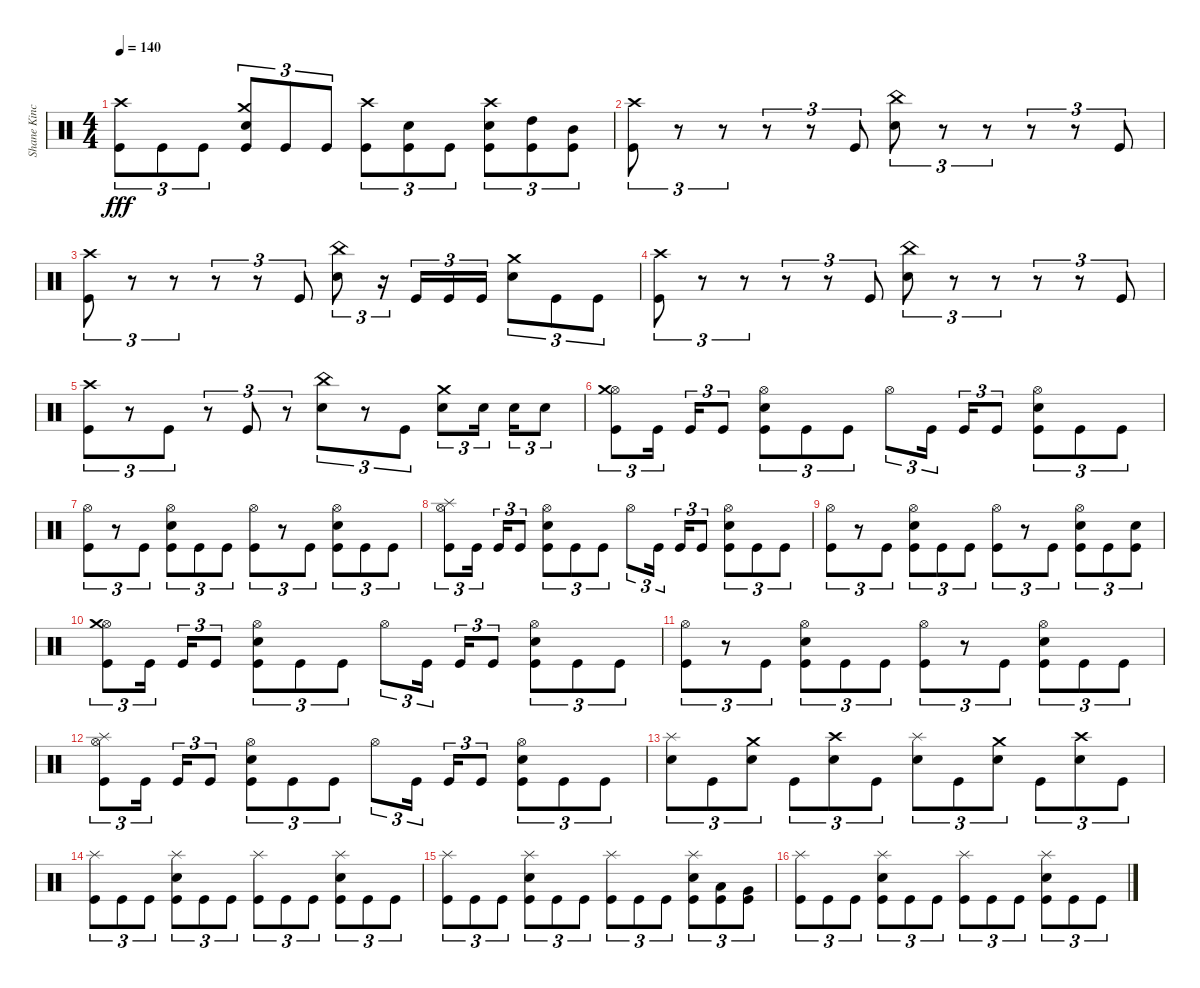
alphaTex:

\track ("Shane Kincaid" "Shane Kinc") {instrument percussion}
\staff {score}
\articulation defaults
\ts (4 4)
\tempo 140
\clef neutral
\ks c
("Crash high (hit)" "Kick (hit)").8{tu (3 2) dy fff} "Kick (hit)".8{tu (3 2)} "Kick (hit)".8{tu (3 2)} ("Crash medium (hit)" "Kick (hit)" "Electric Snare (hit)").8{tu (3 2)} "Kick (hit)".8{tu (3 2)} "Kick (hit)".8{tu (3 2)} ("Crash high (hit)" "Kick (hit)").8{tu (3 2)} ("Kick (hit)" "Electric Snare (hit)").8{tu (3 2)} "Kick (hit)".8{tu (3 2)} ("Crash high (hit)" "Kick (hit)" "Electric Snare (hit)").8{tu (3 2)} ("High Tom (hit)" "Kick (hit)").8{tu (3 2)} ("Mid Tom (hit)" "Kick (hit)").8{tu (3 2)} |
("Crash high (hit)" "Kick (hit)").8{tu (3 2)} r.8{tu (3 2)} r.8{tu (3 2)} r.8{tu (3 2)} r.8{tu (3 2)} "Kick (hit)".8{tu (3 2)} ("China (hit)" "Electric Snare (hit)").8{tu (3 2)} r.8{tu (3 2)} r.8{tu (3 2)} r.8{tu (3 2)} r.8{tu (3 2)} "Kick (hit)".8{tu (3 2)} |
("Crash high (hit)" "Kick (hit)").8{tu (3 2)} r.8{tu (3 2)} r.8{tu (3 2)} r.8{tu (3 2)} r.8{tu (3 2)} "Kick (hit)".8{tu (3 2)} ("China (hit)" "Electric Snare (hit)").8{tu (3 2)} r.16{tu (3 2)} "Kick (hit)".16{tu (3 2)} "Kick (hit)".16{tu (3 2)} "Kick (hit)".16{tu (3 2)} ("Crash medium (hit)" "Electric Snare (hit)").8{tu (3 2)} "Kick (hit)".8{tu (3 2)} "Kick (hit)".8{tu (3 2)} |
("Crash high (hit)" "Kick (hit)").8{tu (3 2)} r.8{tu (3 2)} r.8{tu (3 2)} r.8{tu (3 2)} r.8{tu (3 2)} "Kick (hit)".8{tu (3 2)} ("China (hit)" "Electric Snare (hit)").8{tu (3 2)} r.8{tu (3 2)} r.8{tu (3 2)} r.8{tu (3 2)} r.8{tu (3 2)} "Kick (hit)".8{tu (3 2)} |
("Crash high (hit)" "Kick (hit)").8{tu (3 2)} r.8{tu (3 2)} "Kick (hit)".8{tu (3 2)} r.8{tu (3 2)} "Kick (hit)".8{tu (3 2)} r.8{tu (3 2)} ("China (hit)" "Electric Snare (hit)").8{tu (3 2)} r.8{tu (3 2)} "Kick (hit)".8{tu (3 2)} ("Crash medium (hit)" "Electric Snare (hit)").8{tu (3 2)} "Electric Snare (hit)".16{tu (3 2) beam splitsecondary} "Electric Snare (hit)".16{tu (3 2)} "Electric Snare (hit)".8{tu (3 2)} |
("Hi-Hat (open)" "Crash medium (hit)" "Kick (hit)").8{tu (3 2)} "Kick (hit)".16{tu (3 2) beam splitsecondary} "Kick (hit)".16{tu (3 2)} "Kick (hit)".8{tu (3 2)} ("Hi-Hat (open)" "Electric Snare (hit)" "Kick (hit)").8{tu (3 2)} "Kick (hit)".8{tu (3 2)} "Kick (hit)".8{tu (3 2)} "Hi-Hat (open)".8{tu (3 2)} "Kick (hit)".16{tu (3 2) beam splitsecondary} "Kick (hit)".16{tu (3 2)} "Kick (hit)".8{tu (3 2)} ("Hi-Hat (open)" "Electric Snare (hit)" "Kick (hit)").8{tu (3 2)} "Kick (hit)".8{tu (3 2)} "Kick (hit)".8{tu (3 2)} |
("Hi-Hat (open)" "Kick (hit)").8{tu (3 2)} r.8{tu (3 2)} "Kick (hit)".8{tu (3 2)} ("Hi-Hat (open)" "Kick (hit)" "Electric Snare (hit)").8{tu (3 2)} "Kick (hit)".8{tu (3 2)} "Kick (hit)".8{tu (3 2)} ("Hi-Hat (open)" "Kick (hit)").8{tu (3 2)} r.8{tu (3 2)} "Kick (hit)".8{tu (3 2)} ("Hi-Hat (open)" "Kick (hit)" "Electric Snare (hit)").8{tu (3 2)} "Kick (hit)".8{tu (3 2)} "Kick (hit)".8{tu (3 2)} |
("Hi-Hat (open)" "Splash (hit)" "Kick (hit)").8{tu (3 2)} "Kick (hit)".16{tu (3 2) beam splitsecondary} "Kick (hit)".16{tu (3 2)} "Kick (hit)".8{tu (3 2)} ("Hi-Hat (open)" "Electric Snare (hit)" "Kick (hit)").8{tu (3 2)} "Kick (hit)".8{tu (3 2)} "Kick (hit)".8{tu (3 2)} "Hi-Hat (open)".8{tu (3 2)} "Kick (hit)".16{tu (3 2) beam splitsecondary} "Kick (hit)".16{tu (3 2)} "Kick (hit)".8{tu (3 2)} ("Hi-Hat (open)" "Electric Snare (hit)" "Kick (hit)").8{tu (3 2)} "Kick (hit)".8{tu (3 2)} "Kick (hit)".8{tu (3 2)} |
("Hi-Hat (open)" "Kick (hit)").8{tu (3 2)} r.8{tu (3 2)} "Kick (hit)".8{tu (3 2)} ("Hi-Hat (open)" "Kick (hit)" "Electric Snare (hit)").8{tu (3 2)} "Kick (hit)".8{tu (3 2)} "Kick (hit)".8{tu (3 2)} ("Hi-Hat (open)" "Kick (hit)").8{tu (3 2)} r.8{tu (3 2)} "Kick (hit)".8{tu (3 2)} ("Hi-Hat (open)" "Kick (hit)" "Electric Snare (hit)").8{tu (3 2)} "Kick (hit)".8{tu (3 2)} ("Electric Snare (hit)" "Kick (hit)").8{tu (3 2)} |
("Hi-Hat (open)" "Crash medium (hit)" "Kick (hit)").8{tu (3 2)} "Kick (hit)".16{tu (3 2) beam splitsecondary} "Kick (hit)".16{tu (3 2)} "Kick (hit)".8{tu (3 2)} ("Hi-Hat (open)" "Electric Snare (hit)" "Kick (hit)").8{tu (3 2)} "Kick (hit)".8{tu (3 2)} "Kick (hit)".8{tu (3 2)} "Hi-Hat (open)".8{tu (3 2)} "Kick (hit)".16{tu (3 2) beam splitsecondary} "Kick (hit)".16{tu (3 2)} "Kick (hit)".8{tu (3 2)} ("Hi-Hat (open)" "Electric Snare (hit)" "Kick (hit)").8{tu (3 2)} "Kick (hit)".8{tu (3 2)} "Kick (hit)".8{tu (3 2)} |
("Hi-Hat (open)" "Kick (hit)").8{tu (3 2)} r.8{tu (3 2)} "Kick (hit)".8{tu (3 2)} ("Hi-Hat (open)" "Kick (hit)" "Electric Snare (hit)").8{tu (3 2)} "Kick (hit)".8{tu (3 2)} "Kick (hit)".8{tu (3 2)} ("Hi-Hat (open)" "Kick (hit)").8{tu (3 2)} r.8{tu (3 2)} "Kick (hit)".8{tu (3 2)} ("Hi-Hat (open)" "Kick (hit)" "Electric Snare (hit)").8{tu (3 2)} "Kick (hit)".8{tu (3 2)} "Kick (hit)".8{tu (3 2)} |
("Hi-Hat (open)" "Splash (hit)" "Kick (hit)").8{tu (3 2)} "Kick (hit)".16{tu (3 2) beam splitsecondary} "Kick (hit)".16{tu (3 2)} "Kick (hit)".8{tu (3 2)} ("Hi-Hat (open)" "Electric Snare (hit)" "Kick (hit)").8{tu (3 2)} "Kick (hit)".8{tu (3 2)} "Kick (hit)".8{tu (3 2)} "Hi-Hat (open)".8{tu (3 2)} "Kick (hit)".16{tu (3 2) beam splitsecondary} "Kick (hit)".16{tu (3 2)} "Kick (hit)".8{tu (3 2)} ("Hi-Hat (open)" "Electric Snare (hit)" "Kick (hit)").8{tu (3 2)} "Kick (hit)".8{tu (3 2)} "Kick (hit)".8{tu (3 2)} |
("Splash (hit)" "Electric Snare (hit)").8{tu (3 2)} "Kick (hit)".8{tu (3 2)} ("Crash medium (hit)" "Electric Snare (hit)").8{tu (3 2)} "Kick (hit)".8{tu (3 2)} ("Crash high (hit)" "Electric Snare (hit)").8{tu (3 2)} "Kick (hit)".8{tu (3 2)} ("Splash (hit)" "Electric Snare (hit)").8{tu (3 2)} "Kick (hit)".8{tu (3 2)} ("Crash medium (hit)" "Electric Snare (hit)").8{tu (3 2)} "Kick (hit)".8{tu (3 2)} ("Crash high (hit)" "Electric Snare (hit)").8{tu (3 2)} "Kick (hit)".8{tu (3 2)} |
("Splash (hit)" "Kick (hit)").8{tu (3 2)} "Kick (hit)".8{tu (3 2)} "Kick (hit)".8{tu (3 2)} ("Splash (hit)" "Electric Snare (hit)" "Kick (hit)").8{tu (3 2)} "Kick (hit)".8{tu (3 2)} "Kick (hit)".8{tu (3 2)} ("Splash (hit)" "Kick (hit)").8{tu (3 2)} "Kick (hit)".8{tu (3 2)} "Kick (hit)".8{tu (3 2)} ("Splash (hit)" "Electric Snare (hit)" "Kick (hit)").8{tu (3 2)} "Kick (hit)".8{tu (3 2)} "Kick (hit)".8{tu (3 2)} |
("Splash (hit)" "Kick (hit)").8{tu (3 2)} "Kick (hit)".8{tu (3 2)} "Kick (hit)".8{tu (3 2)} ("Splash (hit)" "Electric Snare (hit)" "Kick (hit)").8{tu (3 2)} "Kick (hit)".8{tu (3 2)} "Kick (hit)".8{tu (3 2)} ("Splash (hit)" "Kick (hit)").8{tu (3 2)} "Kick (hit)".8{tu (3 2)} "Kick (hit)".8{tu (3 2)} ("Splash (hit)" "Electric Snare (hit)" "Kick (hit)").8{tu (3 2)} ("Low Tom (hit)" "Kick (hit)").8{tu (3 2)} ("Very Low Tom (hit)" "Kick (hit)").8{tu (3 2)} |
("Splash (hit)" "Kick (hit)").8{tu (3 2)} "Kick (hit)".8{tu (3 2)} "Kick (hit)".8{tu (3 2)} ("Splash (hit)" "Electric Snare (hit)" "Kick (hit)").8{tu (3 2)} "Kick (hit)".8{tu (3 2)} "Kick (hit)".8{tu (3 2)} ("Splash (hit)" "Kick (hit)").8{tu (3 2)} "Kick (hit)".8{tu (3 2)} "Kick (hit)".8{tu (3 2)} ("Splash (hit)" "Electric Snare (hit)" "Kick (hit)").8{tu (3 2)} "Kick (hit)".8{tu (3 2)} "Kick (hit)".8{tu (3 2)}
